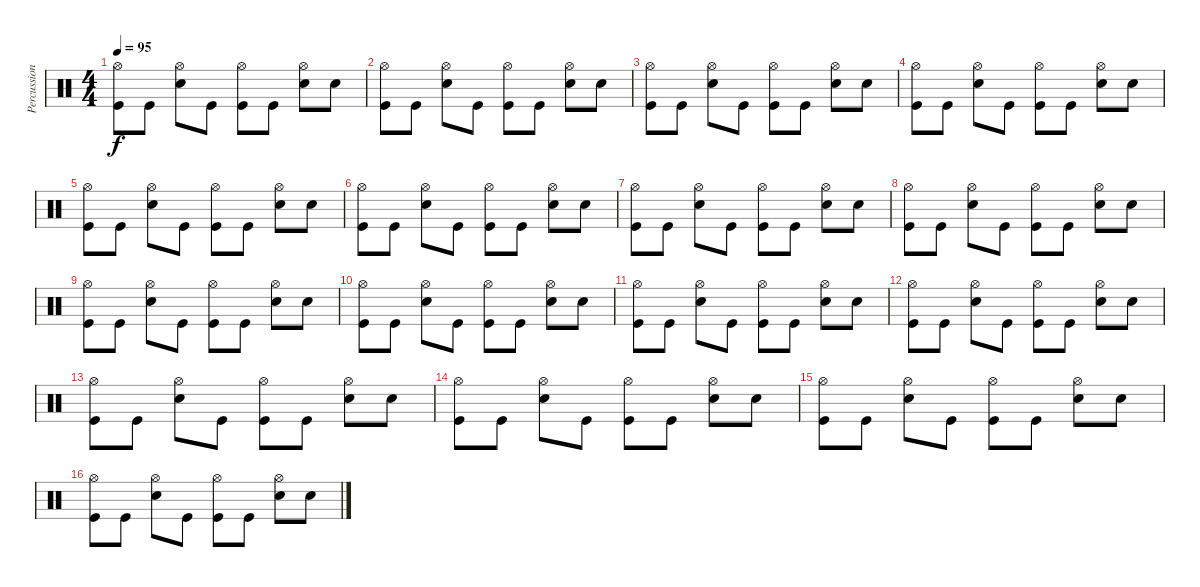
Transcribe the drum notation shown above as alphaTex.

\track ("Percussion" "Percussion") {instrument percussion}
\staff {score}
\articulation defaults
\ts (4 4)
\tempo 95
\clef neutral
\ks c
("Kick (hit)" "Hi-Hat (open)").8{dy f} "Kick (hit)".8 ("Snare (hit) 2" "Hi-Hat (open)").8 "Kick (hit)".8 ("Kick (hit)" "Hi-Hat (open)").8 "Kick (hit)".8 ("Snare (hit) 2" "Hi-Hat (open)").8 "Snare (hit) 2".8 |
("Kick (hit)" "Hi-Hat (open)").8 "Kick (hit)".8 ("Snare (hit) 2" "Hi-Hat (open)").8 "Kick (hit)".8 ("Kick (hit)" "Hi-Hat (open)").8 "Kick (hit)".8 ("Snare (hit) 2" "Hi-Hat (open)").8 "Snare (hit) 2".8 |
("Kick (hit)" "Hi-Hat (open)").8 "Kick (hit)".8 ("Snare (hit) 2" "Hi-Hat (open)").8 "Kick (hit)".8 ("Kick (hit)" "Hi-Hat (open)").8 "Kick (hit)".8 ("Snare (hit) 2" "Hi-Hat (open)").8 "Snare (hit) 2".8 |
("Kick (hit)" "Hi-Hat (open)").8 "Kick (hit)".8 ("Snare (hit) 2" "Hi-Hat (open)").8 "Kick (hit)".8 ("Kick (hit)" "Hi-Hat (open)").8 "Kick (hit)".8 ("Snare (hit) 2" "Hi-Hat (open)").8 "Snare (hit) 2".8 |
("Kick (hit)" "Hi-Hat (open)").8 "Kick (hit)".8 ("Snare (hit) 2" "Hi-Hat (open)").8 "Kick (hit)".8 ("Kick (hit)" "Hi-Hat (open)").8 "Kick (hit)".8 ("Snare (hit) 2" "Hi-Hat (open)").8 "Snare (hit) 2".8 |
("Kick (hit)" "Hi-Hat (open)").8 "Kick (hit)".8 ("Snare (hit) 2" "Hi-Hat (open)").8 "Kick (hit)".8 ("Kick (hit)" "Hi-Hat (open)").8 "Kick (hit)".8 ("Snare (hit) 2" "Hi-Hat (open)").8 "Snare (hit) 2".8 |
("Kick (hit)" "Hi-Hat (open)").8 "Kick (hit)".8 ("Snare (hit) 2" "Hi-Hat (open)").8 "Kick (hit)".8 ("Kick (hit)" "Hi-Hat (open)").8 "Kick (hit)".8 ("Snare (hit) 2" "Hi-Hat (open)").8 "Snare (hit) 2".8 |
("Kick (hit)" "Hi-Hat (open)").8 "Kick (hit)".8 ("Snare (hit) 2" "Hi-Hat (open)").8 "Kick (hit)".8 ("Kick (hit)" "Hi-Hat (open)").8 "Kick (hit)".8 ("Snare (hit) 2" "Hi-Hat (open)").8 "Snare (hit) 2".8 |
("Kick (hit)" "Hi-Hat (open)").8 "Kick (hit)".8 ("Snare (hit) 2" "Hi-Hat (open)").8 "Kick (hit)".8 ("Kick (hit)" "Hi-Hat (open)").8 "Kick (hit)".8 ("Snare (hit) 2" "Hi-Hat (open)").8 "Snare (hit) 2".8 |
("Kick (hit)" "Hi-Hat (open)").8 "Kick (hit)".8 ("Snare (hit) 2" "Hi-Hat (open)").8 "Kick (hit)".8 ("Kick (hit)" "Hi-Hat (open)").8 "Kick (hit)".8 ("Snare (hit) 2" "Hi-Hat (open)").8 "Snare (hit) 2".8 |
("Kick (hit)" "Hi-Hat (open)").8 "Kick (hit)".8 ("Snare (hit) 2" "Hi-Hat (open)").8 "Kick (hit)".8 ("Kick (hit)" "Hi-Hat (open)").8 "Kick (hit)".8 ("Snare (hit) 2" "Hi-Hat (open)").8 "Snare (hit) 2".8 |
("Kick (hit)" "Hi-Hat (open)").8 "Kick (hit)".8 ("Snare (hit) 2" "Hi-Hat (open)").8 "Kick (hit)".8 ("Kick (hit)" "Hi-Hat (open)").8 "Kick (hit)".8 ("Snare (hit) 2" "Hi-Hat (open)").8 "Snare (hit) 2".8 |
("Kick (hit)" "Hi-Hat (open)").8 "Kick (hit)".8 ("Snare (hit) 2" "Hi-Hat (open)").8 "Kick (hit)".8 ("Kick (hit)" "Hi-Hat (open)").8 "Kick (hit)".8 ("Snare (hit) 2" "Hi-Hat (open)").8 "Snare (hit) 2".8 |
("Kick (hit)" "Hi-Hat (open)").8 "Kick (hit)".8 ("Snare (hit) 2" "Hi-Hat (open)").8 "Kick (hit)".8 ("Kick (hit)" "Hi-Hat (open)").8 "Kick (hit)".8 ("Snare (hit) 2" "Hi-Hat (open)").8 "Snare (hit) 2".8 |
("Kick (hit)" "Hi-Hat (open)").8 "Kick (hit)".8 ("Snare (hit) 2" "Hi-Hat (open)").8 "Kick (hit)".8 ("Kick (hit)" "Hi-Hat (open)").8 "Kick (hit)".8 ("Snare (hit) 2" "Hi-Hat (open)").8 "Snare (hit) 2".8 |
("Kick (hit)" "Hi-Hat (open)").8 "Kick (hit)".8 ("Snare (hit) 2" "Hi-Hat (open)").8 "Kick (hit)".8 ("Kick (hit)" "Hi-Hat (open)").8 "Kick (hit)".8 ("Snare (hit) 2" "Hi-Hat (open)").8 "Snare (hit) 2".8
